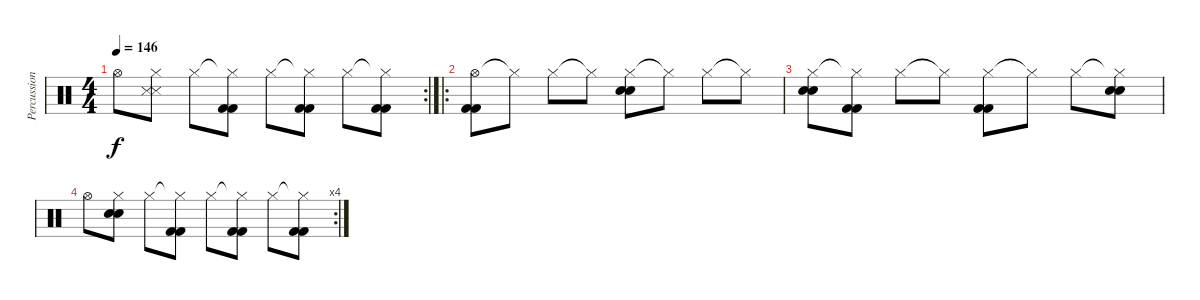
\track ("Percussions" "Percussion") {instrument percussion}
\staff {score}
\articulation defaults
\rc 2
\ts (4 4)
\tempo 146
\clef neutral
\ks c "Hi-Hat (open)".8{dy f}
("Hi-Hat (closed)" "Snare (side stick) 3" "Snare (side stick) 3").8 "Hi-Hat (closed)".8 ("Hi-Hat (closed)"{t} "Kick (hit) 2" "Kick (hit) 2").8 "Hi-Hat (closed)".8 ("Hi-Hat (closed)"{t} "Kick (hit) 2" "Kick (hit) 2").8 "Hi-Hat (closed)".8 ("Hi-Hat (closed)"{t} "Kick (hit) 2" "Kick (hit) 2").8 |
\ro
("Hi-Hat (open)" "Kick (hit) 2" "Kick (hit) 2").8 "Hi-Hat (closed)"{t}.8 "Hi-Hat (closed)".8 "Hi-Hat (closed)"{t}.8 ("Hi-Hat (closed)" "Electric Snare (hit)" "Electric Snare (hit)").8 "Hi-Hat (closed)"{t}.8 "Hi-Hat (closed)".8 "Hi-Hat (closed)"{t}.8 |
("Hi-Hat (closed)" "Electric Snare (hit)" "Electric Snare (hit)").8 ("Hi-Hat (closed)"{t} "Kick (hit) 2" "Kick (hit) 2").8 "Hi-Hat (closed)".8 "Hi-Hat (closed)"{t}.8 ("Hi-Hat (closed)" "Kick (hit) 2" "Kick (hit) 2").8 "Hi-Hat (closed)"{t}.8 "Hi-Hat (closed)".8 ("Hi-Hat (closed)"{t} "Electric Snare (hit)" "Electric Snare (hit)").8 |
\rc 4 "Hi-Hat (open)".8
("Hi-Hat (closed)" "Electric Snare (hit)" "Electric Snare (hit)").8 "Hi-Hat (closed)".8 ("Hi-Hat (closed)"{t} "Kick (hit) 2" "Kick (hit) 2").8 "Hi-Hat (closed)".8 ("Hi-Hat (closed)"{t} "Kick (hit) 2" "Kick (hit) 2").8 "Hi-Hat (closed)".8 ("Hi-Hat (closed)"{t} "Kick (hit) 2" "Kick (hit) 2").8
